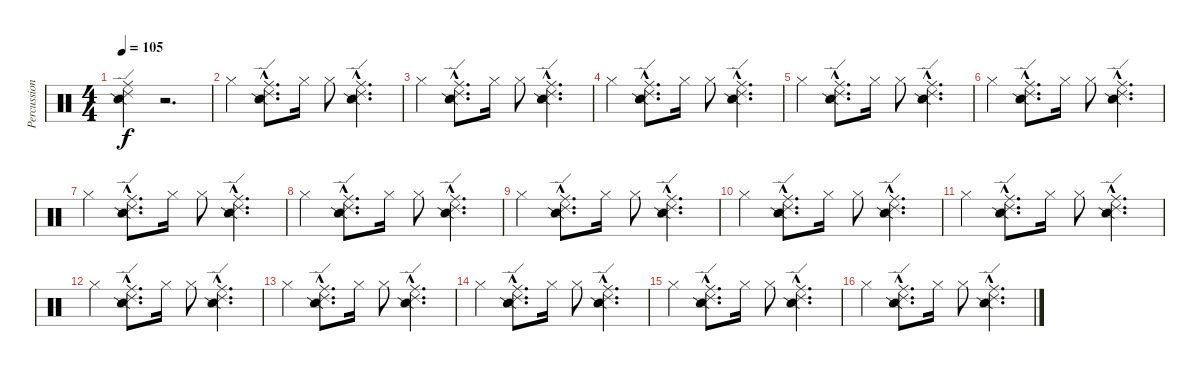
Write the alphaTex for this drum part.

\track ("Percussion" "Percussion") {instrument percussion}
\staff {score}
\articulation defaults
\ts (4 4)
\tempo 105
\clef neutral
\ks c
("Snare (side stick) 2" "Ride (middle)" "Ride (edge) 2").4{dy f} r.2{d} |
"Hi-Hat (closed)".4 ("Snare (side stick) 2"{hac} "Ride (middle)"{hac} "Ride (edge) 2"{hac}).8{d} "Hi-Hat (closed)".16 "Hi-Hat (closed)".8 ("Snare (side stick) 2"{hac} "Ride (middle)"{hac} "Ride (edge) 2"{hac}).4{d} |
"Hi-Hat (closed)".4 ("Snare (side stick) 2"{hac} "Ride (middle)"{hac} "Ride (edge) 2"{hac}).8{d} "Hi-Hat (closed)".16 "Hi-Hat (closed)".8 ("Snare (side stick) 2"{hac} "Ride (middle)"{hac} "Ride (edge) 2"{hac}).4{d} |
"Hi-Hat (closed)".4 ("Snare (side stick) 2"{hac} "Ride (middle)"{hac} "Ride (edge) 2"{hac}).8{d} "Hi-Hat (closed)".16 "Hi-Hat (closed)".8 ("Snare (side stick) 2"{hac} "Ride (middle)"{hac} "Ride (edge) 2"{hac}).4{d} |
"Hi-Hat (closed)".4 ("Snare (side stick) 2"{hac} "Ride (middle)"{hac} "Ride (edge) 2"{hac}).8{d} "Hi-Hat (closed)".16 "Hi-Hat (closed)".8 ("Snare (side stick) 2"{hac} "Ride (middle)"{hac} "Ride (edge) 2"{hac}).4{d} |
"Hi-Hat (closed)".4 ("Snare (side stick) 2"{hac} "Ride (middle)"{hac} "Ride (edge) 2"{hac}).8{d} "Hi-Hat (closed)".16 "Hi-Hat (closed)".8 ("Snare (side stick) 2"{hac} "Ride (middle)"{hac} "Ride (edge) 2"{hac}).4{d} |
"Hi-Hat (closed)".4 ("Snare (side stick) 2"{hac} "Ride (middle)"{hac} "Ride (edge) 2"{hac}).8{d} "Hi-Hat (closed)".16 "Hi-Hat (closed)".8 ("Snare (side stick) 2"{hac} "Ride (middle)"{hac} "Ride (edge) 2"{hac}).4{d} |
"Hi-Hat (closed)".4 ("Snare (side stick) 2"{hac} "Ride (middle)"{hac} "Ride (edge) 2"{hac}).8{d} "Hi-Hat (closed)".16 "Hi-Hat (closed)".8 ("Snare (side stick) 2"{hac} "Ride (middle)"{hac} "Ride (edge) 2"{hac}).4{d} |
"Hi-Hat (closed)".4 ("Snare (side stick) 2"{hac} "Ride (middle)"{hac} "Ride (edge) 2"{hac}).8{d} "Hi-Hat (closed)".16 "Hi-Hat (closed)".8 ("Snare (side stick) 2"{hac} "Ride (middle)"{hac} "Ride (edge) 2"{hac}).4{d} |
"Hi-Hat (closed)".4 ("Snare (side stick) 2"{hac} "Ride (middle)"{hac} "Ride (edge) 2"{hac}).8{d} "Hi-Hat (closed)".16 "Hi-Hat (closed)".8 ("Snare (side stick) 2"{hac} "Ride (middle)"{hac} "Ride (edge) 2"{hac}).4{d} |
"Hi-Hat (closed)".4 ("Snare (side stick) 2"{hac} "Ride (middle)"{hac} "Ride (edge) 2"{hac}).8{d} "Hi-Hat (closed)".16 "Hi-Hat (closed)".8 ("Snare (side stick) 2"{hac} "Ride (middle)"{hac} "Ride (edge) 2"{hac}).4{d} |
"Hi-Hat (closed)".4 ("Snare (side stick) 2"{hac} "Ride (middle)"{hac} "Ride (edge) 2"{hac}).8{d} "Hi-Hat (closed)".16 "Hi-Hat (closed)".8 ("Snare (side stick) 2"{hac} "Ride (middle)"{hac} "Ride (edge) 2"{hac}).4{d} |
"Hi-Hat (closed)".4 ("Snare (side stick) 2"{hac} "Ride (middle)"{hac} "Ride (edge) 2"{hac}).8{d} "Hi-Hat (closed)".16 "Hi-Hat (closed)".8 ("Snare (side stick) 2"{hac} "Ride (middle)"{hac} "Ride (edge) 2"{hac}).4{d} |
"Hi-Hat (closed)".4 ("Snare (side stick) 2"{hac} "Ride (middle)"{hac} "Ride (edge) 2"{hac}).8{d} "Hi-Hat (closed)".16 "Hi-Hat (closed)".8 ("Snare (side stick) 2"{hac} "Ride (middle)"{hac} "Ride (edge) 2"{hac}).4{d} |
"Hi-Hat (closed)".4 ("Snare (side stick) 2"{hac} "Ride (middle)"{hac} "Ride (edge) 2"{hac}).8{d} "Hi-Hat (closed)".16 "Hi-Hat (closed)".8 ("Snare (side stick) 2"{hac} "Ride (middle)"{hac} "Ride (edge) 2"{hac}).4{d} |
"Hi-Hat (closed)".4 ("Snare (side stick) 2"{hac} "Ride (middle)"{hac} "Ride (edge) 2"{hac}).8{d} "Hi-Hat (closed)".16 "Hi-Hat (closed)".8 ("Snare (side stick) 2"{hac} "Ride (middle)"{hac} "Ride (edge) 2"{hac}).4{d}
